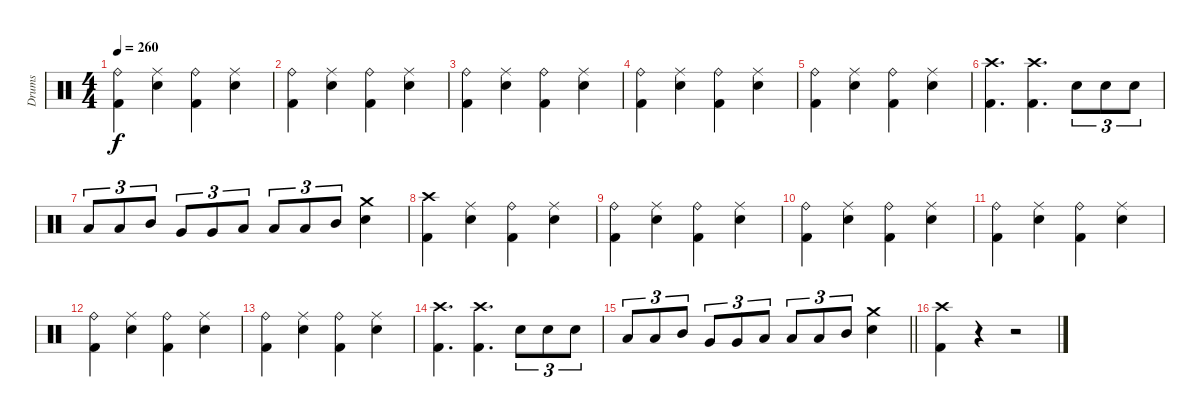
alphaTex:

\track ("Drums" "Drums") {instrument percussion}
\staff {score}
\articulation defaults
\ts (4 4)
\tempo 260
\clef neutral
\ks c
("Ride (bell)" "Kick (hit) 2").4{dy f} ("Ride (middle)" "Electric Snare (hit)").4 ("Ride (bell)" "Kick (hit) 2").4 ("Ride (middle)" "Electric Snare (hit)").4 |
("Ride (bell)" "Kick (hit) 2").4 ("Ride (middle)" "Electric Snare (hit)").4 ("Ride (bell)" "Kick (hit) 2").4 ("Ride (middle)" "Electric Snare (hit)").4 |
("Ride (bell)" "Kick (hit) 2").4 ("Ride (middle)" "Electric Snare (hit)").4 ("Ride (bell)" "Kick (hit) 2").4 ("Ride (middle)" "Electric Snare (hit)").4 |
("Ride (bell)" "Kick (hit) 2").4 ("Ride (middle)" "Electric Snare (hit)").4 ("Ride (bell)" "Kick (hit) 2").4 ("Ride (middle)" "Electric Snare (hit)").4 |
("Ride (bell)" "Kick (hit) 2").4 ("Ride (middle)" "Electric Snare (hit)").4 ("Ride (bell)" "Kick (hit) 2").4 ("Ride (middle)" "Electric Snare (hit)").4 |
("Crash high (hit)" "Kick (hit) 2").4{d} ("Crash high (hit)" "Kick (hit) 2").4{d} "Electric Snare (hit)".8{tu (3 2)} "Electric Snare (hit)".8{tu (3 2)} "Electric Snare (hit)".8{tu (3 2)} |
"Low Tom (hit)".8{tu (3 2)} "Low Tom (hit)".8{tu (3 2)} "Mid Tom (hit)".8{tu (3 2)} "Very Low Tom (hit)".8{tu (3 2)} "Very Low Tom (hit)".8{tu (3 2)} "Low Tom (hit)".8{tu (3 2)} "Low Tom (hit)".8{tu (3 2)} "Low Tom (hit)".8{tu (3 2)} "Mid Tom (hit)".8{tu (3 2)} ("Crash medium (hit)" "Electric Snare (hit)").4 |
("Crash high (hit)" "Kick (hit) 2").4 ("Ride (middle)" "Electric Snare (hit)").4 ("Ride (bell)" "Kick (hit) 2").4 ("Ride (middle)" "Electric Snare (hit)").4 |
("Ride (bell)" "Kick (hit) 2").4 ("Ride (middle)" "Electric Snare (hit)").4 ("Ride (bell)" "Kick (hit) 2").4 ("Ride (middle)" "Electric Snare (hit)").4 |
("Ride (bell)" "Kick (hit) 2").4 ("Ride (middle)" "Electric Snare (hit)").4 ("Ride (bell)" "Kick (hit) 2").4 ("Ride (middle)" "Electric Snare (hit)").4 |
("Ride (bell)" "Kick (hit) 2").4 ("Ride (middle)" "Electric Snare (hit)").4 ("Ride (bell)" "Kick (hit) 2").4 ("Ride (middle)" "Electric Snare (hit)").4 |
("Ride (bell)" "Kick (hit) 2").4 ("Ride (middle)" "Electric Snare (hit)").4 ("Ride (bell)" "Kick (hit) 2").4 ("Ride (middle)" "Electric Snare (hit)").4 |
("Ride (bell)" "Kick (hit) 2").4 ("Ride (middle)" "Electric Snare (hit)").4 ("Ride (bell)" "Kick (hit) 2").4 ("Ride (middle)" "Electric Snare (hit)").4 |
("Crash high (hit)" "Kick (hit) 2").4{d} ("Crash high (hit)" "Kick (hit) 2").4{d} "Electric Snare (hit)".8{tu (3 2)} "Electric Snare (hit)".8{tu (3 2)} "Electric Snare (hit)".8{tu (3 2)} |
\barLineRight lightlight "Low Tom (hit)".8{tu (3 2)} "Low Tom (hit)".8{tu (3 2)} "Mid Tom (hit)".8{tu (3 2)} "Very Low Tom (hit)".8{tu (3 2)} "Very Low Tom (hit)".8{tu (3 2)} "Low Tom (hit)".8{tu (3 2)} "Low Tom (hit)".8{tu (3 2)} "Low Tom (hit)".8{tu (3 2)} "Mid Tom (hit)".8{tu (3 2)}
("Crash medium (hit)" "Electric Snare (hit)").4 |
("Crash high (hit)" "Kick (hit) 2").4 r.4 r.2
